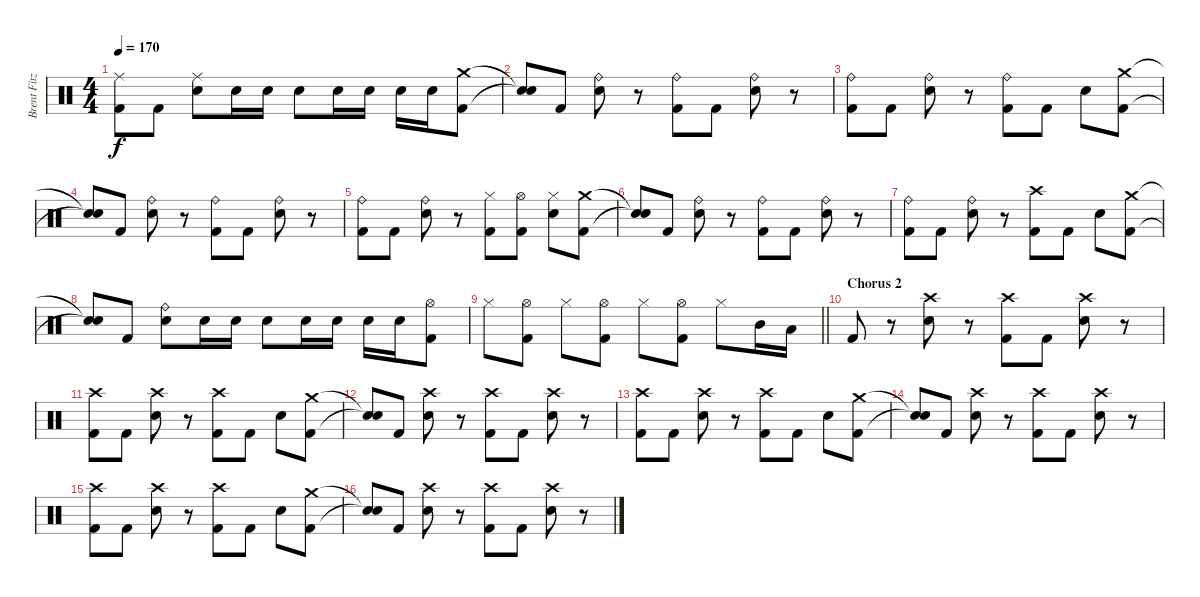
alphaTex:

\track ("Brent Fitz" "Brent Fitz") {instrument percussion}
\staff {score}
\articulation defaults
\ts (4 4)
\tempo 170
\clef neutral
\ks c
("Ride (middle)" "Kick (hit) 2").8{dy f} "Kick (hit) 2".8 ("Ride (middle)" "Electric Snare (hit)").8 "Electric Snare (hit)".16 "Electric Snare (hit)".16 "Electric Snare (hit)".8 "Electric Snare (hit)".16 "Electric Snare (hit)".16 "Electric Snare (hit)".16 "Electric Snare (hit)".16 ("Crash medium (hit)" "Kick (hit) 2").8 |
("Snare (hit)"{t} "Snare (hit)"{t}).8 "Kick (hit) 2".8 ("Ride (bell)" "Electric Snare (hit)").8 r.8 ("Ride (bell)" "Kick (hit) 2").8 "Kick (hit) 2".8 ("Ride (bell)" "Electric Snare (hit)").8 r.8 |
("Ride (bell)" "Kick (hit) 2").8 "Kick (hit) 2".8 ("Ride (bell)" "Electric Snare (hit)").8 r.8 ("Ride (bell)" "Kick (hit) 2").8 "Kick (hit) 2".8 "Electric Snare (hit)".8 ("Crash medium (hit)" "Kick (hit) 2").8 |
("Snare (hit)"{t} "Snare (hit)"{t}).8 "Kick (hit) 2".8 ("Ride (bell)" "Electric Snare (hit)").8 r.8 ("Ride (bell)" "Kick (hit) 2").8 "Kick (hit) 2".8 ("Ride (bell)" "Electric Snare (hit)").8 r.8 |
("Ride (bell)" "Kick (hit) 2").8 "Kick (hit) 2".8 ("Ride (bell)" "Electric Snare (hit)").8 r.8 ("Hi-Hat (closed)" "Kick (hit) 2").8 ("Hi-Hat (open)" "Kick (hit) 2").8 ("Hi-Hat (closed)" "Electric Snare (hit)").8 ("Crash medium (hit)" "Kick (hit) 2").8 |
("Snare (hit)"{t} "Snare (hit)"{t}).8 "Kick (hit) 2".8 ("Ride (bell)" "Electric Snare (hit)").8 r.8 ("Ride (bell)" "Kick (hit) 2").8 "Kick (hit) 2".8 ("Ride (bell)" "Electric Snare (hit)").8 r.8 |
("Ride (bell)" "Kick (hit) 2").8 "Kick (hit) 2".8 ("Ride (bell)" "Electric Snare (hit)").8 r.8 ("Crash high (hit)" "Kick (hit) 2").8 "Kick (hit) 2".8 "Electric Snare (hit)".8 ("Crash medium (hit)" "Kick (hit) 2").8 |
("Snare (hit)"{t} "Snare (hit)"{t}).8 "Kick (hit) 2".8 ("Ride (bell)" "Electric Snare (hit)").8 "Electric Snare (hit)".16 "Electric Snare (hit)".16 "Electric Snare (hit)".8 "Electric Snare (hit)".16 "Electric Snare (hit)".16 "Electric Snare (hit)".16 "Electric Snare (hit)".16 ("Hi-Hat (open)" "Kick (hit) 2").8 |
\barLineRight lightlight "Hi-Hat (closed)".8
("Hi-Hat (open)" "Kick (hit) 2").8 "Hi-Hat (closed)".8 ("Hi-Hat (open)" "Kick (hit) 2").8 "Hi-Hat (closed)".8 ("Hi-Hat (open)" "Kick (hit) 2").8 "Hi-Hat (closed)".8 "Mid Tom (hit)".16 "Low Tom (hit)".16 |
\section ("" "Chorus 2")
"Kick (hit) 2".8 r.8 ("Crash high (hit)" "Electric Snare (hit)").8 r.8 ("Crash high (hit)" "Kick (hit) 2").8 "Kick (hit) 2".8 ("Crash high (hit)" "Electric Snare (hit)").8 r.8 |
("Crash high (hit)" "Kick (hit) 2").8 "Kick (hit) 2".8 ("Crash high (hit)" "Electric Snare (hit)").8 r.8 ("Crash high (hit)" "Kick (hit) 2").8 "Kick (hit) 2".8 "Electric Snare (hit)".8 ("Crash medium (hit)" "Kick (hit) 2").8 |
("Snare (hit)"{t} "Snare (hit)"{t}).8 "Kick (hit) 2".8 ("Crash high (hit)" "Electric Snare (hit)").8 r.8 ("Crash high (hit)" "Kick (hit) 2").8 "Kick (hit) 2".8 ("Crash high (hit)" "Electric Snare (hit)").8 r.8 |
("Crash high (hit)" "Kick (hit) 2").8 "Kick (hit) 2".8 ("Crash high (hit)" "Electric Snare (hit)").8 r.8 ("Crash high (hit)" "Kick (hit) 2").8 "Kick (hit) 2".8 "Electric Snare (hit)".8 ("Crash medium (hit)" "Kick (hit) 2").8 |
("Snare (hit)"{t} "Snare (hit)"{t}).8 "Kick (hit) 2".8 ("Crash high (hit)" "Electric Snare (hit)").8 r.8 ("Crash high (hit)" "Kick (hit) 2").8 "Kick (hit) 2".8 ("Crash high (hit)" "Electric Snare (hit)").8 r.8 |
("Crash high (hit)" "Kick (hit) 2").8 "Kick (hit) 2".8 ("Crash high (hit)" "Electric Snare (hit)").8 r.8 ("Crash high (hit)" "Kick (hit) 2").8 "Kick (hit) 2".8 "Electric Snare (hit)".8 ("Crash medium (hit)" "Kick (hit) 2").8 |
("Snare (hit)"{t} "Snare (hit)"{t}).8 "Kick (hit) 2".8 ("Crash high (hit)" "Electric Snare (hit)").8 r.8 ("Crash high (hit)" "Kick (hit) 2").8 "Kick (hit) 2".8 ("Crash high (hit)" "Electric Snare (hit)").8 r.8
